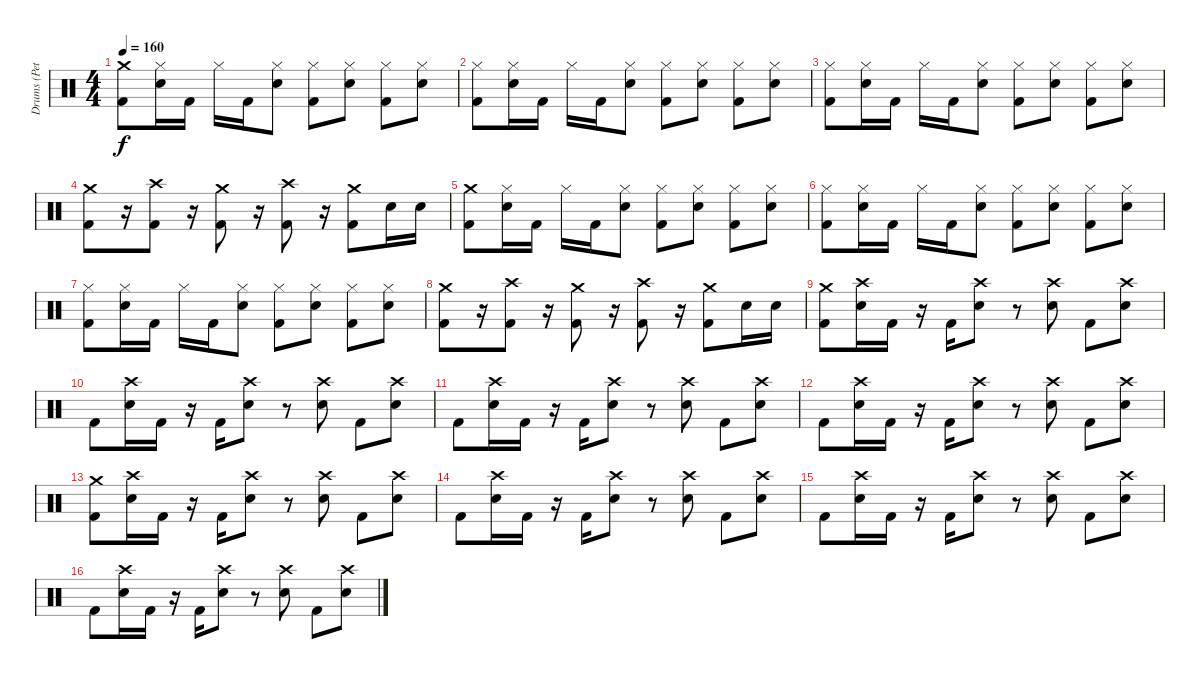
\track ("Drums (Pete)" "Drums (Pet") {instrument percussion}
\staff {score}
\articulation defaults
\ts (4 4)
\tempo 160
\clef neutral
\ks c
("Crash medium (hit)" "Kick (hit) 2").8{dy f} ("Hi-Hat (closed)" "Snare (hit) 2").16 "Kick (hit) 2".16 "Hi-Hat (closed)".16 "Kick (hit) 2".16 ("Hi-Hat (closed)" "Snare (hit) 2").8 ("Hi-Hat (closed)" "Kick (hit) 2").8 ("Hi-Hat (closed)" "Snare (hit) 2").8 ("Hi-Hat (closed)" "Kick (hit) 2").8 ("Hi-Hat (closed)" "Snare (hit) 2").8 |
("Hi-Hat (closed)" "Kick (hit) 2").8 ("Hi-Hat (closed)" "Snare (hit) 2").16 "Kick (hit) 2".16 "Hi-Hat (closed)".16 "Kick (hit) 2".16 ("Hi-Hat (closed)" "Snare (hit) 2").8 ("Hi-Hat (closed)" "Kick (hit) 2").8 ("Hi-Hat (closed)" "Snare (hit) 2").8 ("Hi-Hat (closed)" "Kick (hit) 2").8 ("Hi-Hat (closed)" "Snare (hit) 2").8 |
("Hi-Hat (closed)" "Kick (hit) 2").8 ("Hi-Hat (closed)" "Snare (hit) 2").16 "Kick (hit) 2".16 "Hi-Hat (closed)".16 "Kick (hit) 2".16 ("Hi-Hat (closed)" "Snare (hit) 2").8 ("Hi-Hat (closed)" "Kick (hit) 2").8 ("Hi-Hat (closed)" "Snare (hit) 2").8 ("Hi-Hat (closed)" "Kick (hit) 2").8 ("Hi-Hat (closed)" "Snare (hit) 2").8 |
("Crash medium (hit)" "Kick (hit) 2").8 r.16 ("Crash high (hit)" "Kick (hit) 2").8 r.16 ("Crash medium (hit)" "Kick (hit) 2").8 r.16 ("Crash high (hit)" "Kick (hit) 2").8 r.16 ("Crash medium (hit)" "Kick (hit) 2").8 "Snare (hit) 2".16 "Snare (hit) 2".16 |
("Crash medium (hit)" "Kick (hit) 2").8 ("Hi-Hat (closed)" "Snare (hit) 2").16 "Kick (hit) 2".16 "Hi-Hat (closed)".16 "Kick (hit) 2".16 ("Hi-Hat (closed)" "Snare (hit) 2").8 ("Hi-Hat (closed)" "Kick (hit) 2").8 ("Hi-Hat (closed)" "Snare (hit) 2").8 ("Hi-Hat (closed)" "Kick (hit) 2").8 ("Hi-Hat (closed)" "Snare (hit) 2").8 |
("Hi-Hat (closed)" "Kick (hit) 2").8 ("Hi-Hat (closed)" "Snare (hit) 2").16 "Kick (hit) 2".16 "Hi-Hat (closed)".16 "Kick (hit) 2".16 ("Hi-Hat (closed)" "Snare (hit) 2").8 ("Hi-Hat (closed)" "Kick (hit) 2").8 ("Hi-Hat (closed)" "Snare (hit) 2").8 ("Hi-Hat (closed)" "Kick (hit) 2").8 ("Hi-Hat (closed)" "Snare (hit) 2").8 |
("Hi-Hat (closed)" "Kick (hit) 2").8 ("Hi-Hat (closed)" "Snare (hit) 2").16 "Kick (hit) 2".16 "Hi-Hat (closed)".16 "Kick (hit) 2".16 ("Hi-Hat (closed)" "Snare (hit) 2").8 ("Hi-Hat (closed)" "Kick (hit) 2").8 ("Hi-Hat (closed)" "Snare (hit) 2").8 ("Hi-Hat (closed)" "Kick (hit) 2").8 ("Hi-Hat (closed)" "Snare (hit) 2").8 |
("Crash medium (hit)" "Kick (hit) 2").8 r.16 ("Crash high (hit)" "Kick (hit) 2").8 r.16 ("Crash medium (hit)" "Kick (hit) 2").8 r.16 ("Crash high (hit)" "Kick (hit) 2").8 r.16 ("Crash medium (hit)" "Kick (hit) 2").8 "Snare (hit) 2".16 "Snare (hit) 2".16 |
("Crash medium (hit)" "Kick (hit) 2").8 ("Crash high (hit)" "Snare (hit) 2").16 "Kick (hit) 2".16 r.16 "Kick (hit) 2".16 ("Crash high (hit)" "Snare (hit) 2").8 r.8 ("Crash high (hit)" "Snare (hit) 2").8 "Kick (hit) 2".8 ("Crash high (hit)" "Snare (hit) 2").8 |
"Kick (hit) 2".8 ("Crash high (hit)" "Snare (hit) 2").16 "Kick (hit) 2".16 r.16 "Kick (hit) 2".16 ("Crash high (hit)" "Snare (hit) 2").8 r.8 ("Crash high (hit)" "Snare (hit) 2").8 "Kick (hit) 2".8 ("Crash high (hit)" "Snare (hit) 2").8 |
"Kick (hit) 2".8 ("Crash high (hit)" "Snare (hit) 2").16 "Kick (hit) 2".16 r.16 "Kick (hit) 2".16 ("Crash high (hit)" "Snare (hit) 2").8 r.8 ("Crash high (hit)" "Snare (hit) 2").8 "Kick (hit) 2".8 ("Crash high (hit)" "Snare (hit) 2").8 |
"Kick (hit) 2".8 ("Crash high (hit)" "Snare (hit) 2").16 "Kick (hit) 2".16 r.16 "Kick (hit) 2".16 ("Crash high (hit)" "Snare (hit) 2").8 r.8 ("Crash high (hit)" "Snare (hit) 2").8 "Kick (hit) 2".8 ("Crash high (hit)" "Snare (hit) 2").8 |
("Crash medium (hit)" "Kick (hit) 2").8 ("Crash high (hit)" "Snare (hit) 2").16 "Kick (hit) 2".16 r.16 "Kick (hit) 2".16 ("Crash high (hit)" "Snare (hit) 2").8 r.8 ("Crash high (hit)" "Snare (hit) 2").8 "Kick (hit) 2".8 ("Crash high (hit)" "Snare (hit) 2").8 |
"Kick (hit) 2".8 ("Crash high (hit)" "Snare (hit) 2").16 "Kick (hit) 2".16 r.16 "Kick (hit) 2".16 ("Crash high (hit)" "Snare (hit) 2").8 r.8 ("Crash high (hit)" "Snare (hit) 2").8 "Kick (hit) 2".8 ("Crash high (hit)" "Snare (hit) 2").8 |
"Kick (hit) 2".8 ("Crash high (hit)" "Snare (hit) 2").16 "Kick (hit) 2".16 r.16 "Kick (hit) 2".16 ("Crash high (hit)" "Snare (hit) 2").8 r.8 ("Crash high (hit)" "Snare (hit) 2").8 "Kick (hit) 2".8 ("Crash high (hit)" "Snare (hit) 2").8 |
"Kick (hit) 2".8 ("Crash high (hit)" "Snare (hit) 2").16 "Kick (hit) 2".16 r.16 "Kick (hit) 2".16 ("Crash high (hit)" "Snare (hit) 2").8 r.8 ("Crash high (hit)" "Snare (hit) 2").8 "Kick (hit) 2".8 ("Crash high (hit)" "Snare (hit) 2").8
